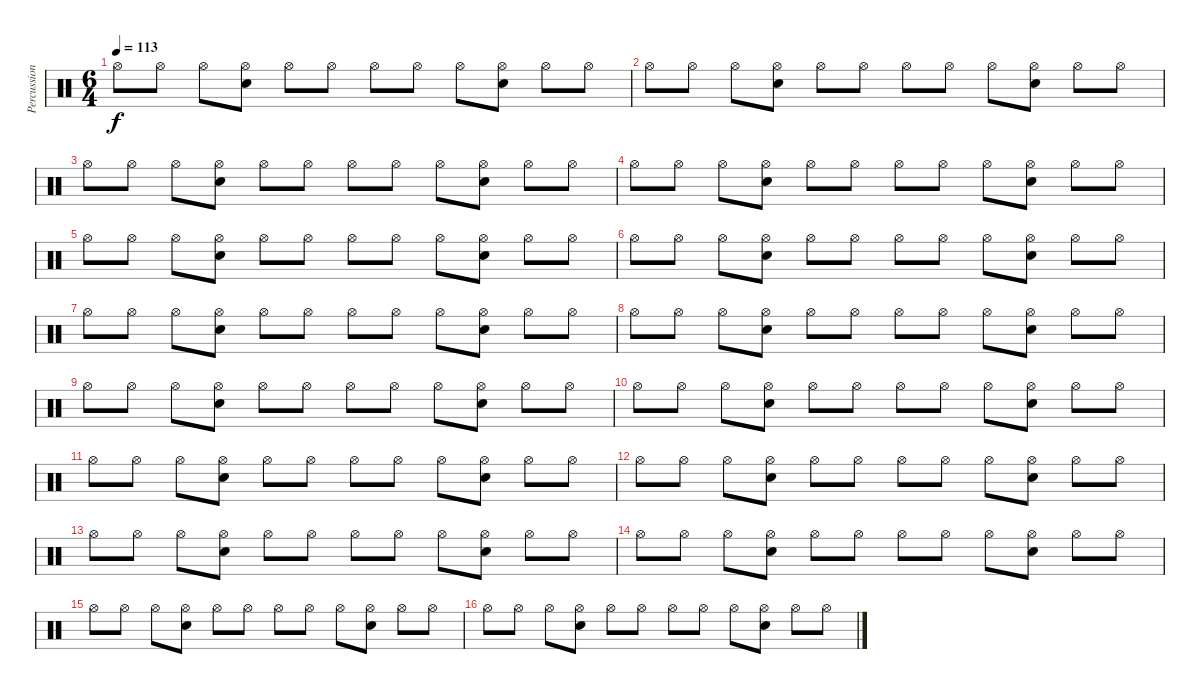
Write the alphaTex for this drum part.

\track ("Percussion" "Percussion") {instrument percussion}
\staff {score}
\articulation defaults
\ts (6 4)
\tempo 113
\clef neutral
\ks c "Hi-Hat (open)".8{dy f} "Hi-Hat (open)".8 "Hi-Hat (open)".8
("Electric Snare (hit)" "Hi-Hat (open)").8 "Hi-Hat (open)".8 "Hi-Hat (open)".8 "Hi-Hat (open)".8 "Hi-Hat (open)".8 "Hi-Hat (open)".8 ("Electric Snare (hit)" "Hi-Hat (open)").8 "Hi-Hat (open)".8 "Hi-Hat (open)".8 |
"Hi-Hat (open)".8 "Hi-Hat (open)".8 "Hi-Hat (open)".8 ("Electric Snare (hit)" "Hi-Hat (open)").8 "Hi-Hat (open)".8 "Hi-Hat (open)".8 "Hi-Hat (open)".8 "Hi-Hat (open)".8 "Hi-Hat (open)".8 ("Electric Snare (hit)" "Hi-Hat (open)").8 "Hi-Hat (open)".8 "Hi-Hat (open)".8 |
"Hi-Hat (open)".8 "Hi-Hat (open)".8 "Hi-Hat (open)".8 ("Electric Snare (hit)" "Hi-Hat (open)").8 "Hi-Hat (open)".8 "Hi-Hat (open)".8 "Hi-Hat (open)".8 "Hi-Hat (open)".8 "Hi-Hat (open)".8 ("Electric Snare (hit)" "Hi-Hat (open)").8 "Hi-Hat (open)".8 "Hi-Hat (open)".8 |
"Hi-Hat (open)".8 "Hi-Hat (open)".8 "Hi-Hat (open)".8 ("Electric Snare (hit)" "Hi-Hat (open)").8 "Hi-Hat (open)".8 "Hi-Hat (open)".8 "Hi-Hat (open)".8 "Hi-Hat (open)".8 "Hi-Hat (open)".8 ("Electric Snare (hit)" "Hi-Hat (open)").8 "Hi-Hat (open)".8 "Hi-Hat (open)".8 |
"Hi-Hat (open)".8 "Hi-Hat (open)".8 "Hi-Hat (open)".8 ("Electric Snare (hit)" "Hi-Hat (open)").8 "Hi-Hat (open)".8 "Hi-Hat (open)".8 "Hi-Hat (open)".8 "Hi-Hat (open)".8 "Hi-Hat (open)".8 ("Electric Snare (hit)" "Hi-Hat (open)").8 "Hi-Hat (open)".8 "Hi-Hat (open)".8 |
"Hi-Hat (open)".8 "Hi-Hat (open)".8 "Hi-Hat (open)".8 ("Electric Snare (hit)" "Hi-Hat (open)").8 "Hi-Hat (open)".8 "Hi-Hat (open)".8 "Hi-Hat (open)".8 "Hi-Hat (open)".8 "Hi-Hat (open)".8 ("Electric Snare (hit)" "Hi-Hat (open)").8 "Hi-Hat (open)".8 "Hi-Hat (open)".8 |
"Hi-Hat (open)".8 "Hi-Hat (open)".8 "Hi-Hat (open)".8 ("Electric Snare (hit)" "Hi-Hat (open)").8 "Hi-Hat (open)".8 "Hi-Hat (open)".8 "Hi-Hat (open)".8 "Hi-Hat (open)".8 "Hi-Hat (open)".8 ("Electric Snare (hit)" "Hi-Hat (open)").8 "Hi-Hat (open)".8 "Hi-Hat (open)".8 |
"Hi-Hat (open)".8 "Hi-Hat (open)".8 "Hi-Hat (open)".8 ("Electric Snare (hit)" "Hi-Hat (open)").8 "Hi-Hat (open)".8 "Hi-Hat (open)".8 "Hi-Hat (open)".8 "Hi-Hat (open)".8 "Hi-Hat (open)".8 ("Electric Snare (hit)" "Hi-Hat (open)").8 "Hi-Hat (open)".8 "Hi-Hat (open)".8 |
"Hi-Hat (open)".8 "Hi-Hat (open)".8 "Hi-Hat (open)".8 ("Electric Snare (hit)" "Hi-Hat (open)").8 "Hi-Hat (open)".8 "Hi-Hat (open)".8 "Hi-Hat (open)".8 "Hi-Hat (open)".8 "Hi-Hat (open)".8 ("Electric Snare (hit)" "Hi-Hat (open)").8 "Hi-Hat (open)".8 "Hi-Hat (open)".8 |
"Hi-Hat (open)".8 "Hi-Hat (open)".8 "Hi-Hat (open)".8 ("Electric Snare (hit)" "Hi-Hat (open)").8 "Hi-Hat (open)".8 "Hi-Hat (open)".8 "Hi-Hat (open)".8 "Hi-Hat (open)".8 "Hi-Hat (open)".8 ("Electric Snare (hit)" "Hi-Hat (open)").8 "Hi-Hat (open)".8 "Hi-Hat (open)".8 |
"Hi-Hat (open)".8 "Hi-Hat (open)".8 "Hi-Hat (open)".8 ("Electric Snare (hit)" "Hi-Hat (open)").8 "Hi-Hat (open)".8 "Hi-Hat (open)".8 "Hi-Hat (open)".8 "Hi-Hat (open)".8 "Hi-Hat (open)".8 ("Electric Snare (hit)" "Hi-Hat (open)").8 "Hi-Hat (open)".8 "Hi-Hat (open)".8 |
"Hi-Hat (open)".8 "Hi-Hat (open)".8 "Hi-Hat (open)".8 ("Electric Snare (hit)" "Hi-Hat (open)").8 "Hi-Hat (open)".8 "Hi-Hat (open)".8 "Hi-Hat (open)".8 "Hi-Hat (open)".8 "Hi-Hat (open)".8 ("Electric Snare (hit)" "Hi-Hat (open)").8 "Hi-Hat (open)".8 "Hi-Hat (open)".8 |
"Hi-Hat (open)".8 "Hi-Hat (open)".8 "Hi-Hat (open)".8 ("Electric Snare (hit)" "Hi-Hat (open)").8 "Hi-Hat (open)".8 "Hi-Hat (open)".8 "Hi-Hat (open)".8 "Hi-Hat (open)".8 "Hi-Hat (open)".8 ("Electric Snare (hit)" "Hi-Hat (open)").8 "Hi-Hat (open)".8 "Hi-Hat (open)".8 |
"Hi-Hat (open)".8 "Hi-Hat (open)".8 "Hi-Hat (open)".8 ("Electric Snare (hit)" "Hi-Hat (open)").8 "Hi-Hat (open)".8 "Hi-Hat (open)".8 "Hi-Hat (open)".8 "Hi-Hat (open)".8 "Hi-Hat (open)".8 ("Electric Snare (hit)" "Hi-Hat (open)").8 "Hi-Hat (open)".8 "Hi-Hat (open)".8 |
"Hi-Hat (open)".8 "Hi-Hat (open)".8 "Hi-Hat (open)".8 ("Electric Snare (hit)" "Hi-Hat (open)").8 "Hi-Hat (open)".8 "Hi-Hat (open)".8 "Hi-Hat (open)".8 "Hi-Hat (open)".8 "Hi-Hat (open)".8 ("Electric Snare (hit)" "Hi-Hat (open)").8 "Hi-Hat (open)".8 "Hi-Hat (open)".8 |
"Hi-Hat (open)".8 "Hi-Hat (open)".8 "Hi-Hat (open)".8 ("Electric Snare (hit)" "Hi-Hat (open)").8 "Hi-Hat (open)".8 "Hi-Hat (open)".8 "Hi-Hat (open)".8 "Hi-Hat (open)".8 "Hi-Hat (open)".8 ("Electric Snare (hit)" "Hi-Hat (open)").8 "Hi-Hat (open)".8 "Hi-Hat (open)".8
